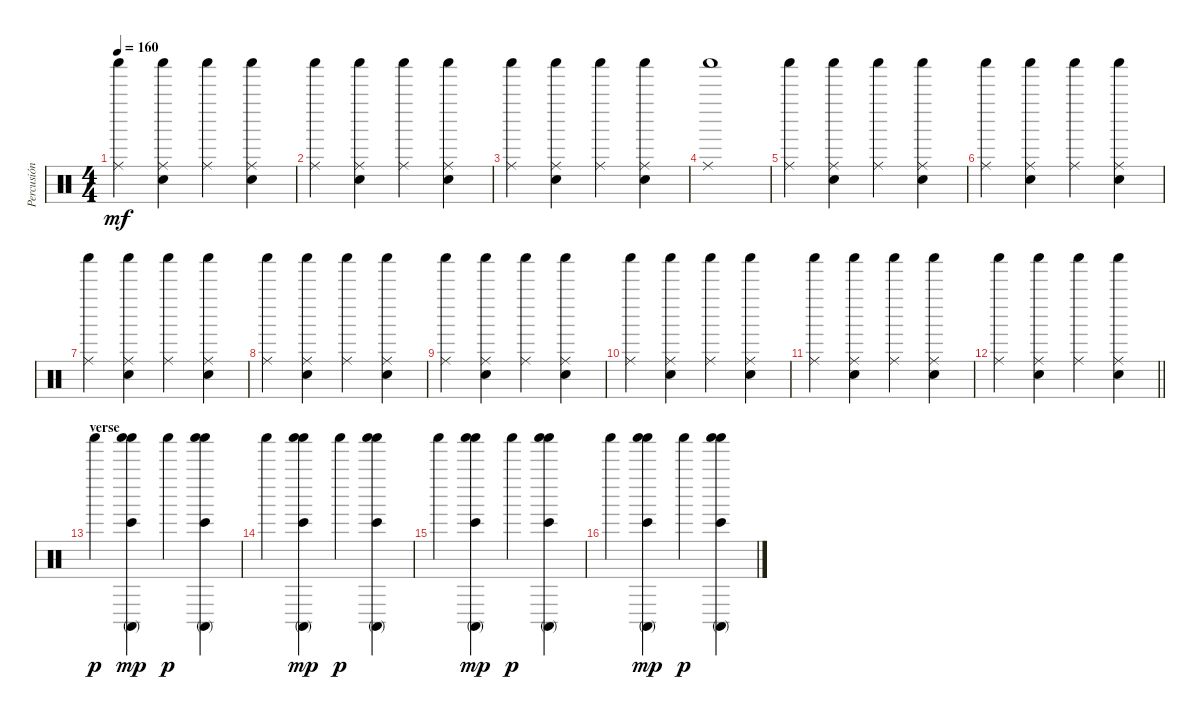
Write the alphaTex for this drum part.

\track ("Percusión" "Percusión") {instrument percussion}
\staff {score}
\articulation defaults
\ts (4 4)
\tempo 160
\clef neutral
\ks c
("Shaker (hit)" "Ride (middle)").4{dy mf} ("Shaker (hit)" "Snare (hit) 2" "Ride (middle)").4 ("Shaker (hit)" "Ride (middle)").4 ("Shaker (hit)" "Snare (hit) 2" "Ride (middle)").4 |
("Shaker (hit)" "Ride (middle)").4 ("Shaker (hit)" "Snare (hit) 2" "Ride (middle)").4 ("Shaker (hit)" "Ride (middle)").4 ("Shaker (hit)" "Snare (hit) 2" "Ride (middle)").4 |
("Shaker (hit)" "Ride (middle)").4 ("Shaker (hit)" "Snare (hit) 2" "Ride (middle)").4 ("Shaker (hit)" "Ride (middle)").4 ("Shaker (hit)" "Snare (hit) 2" "Ride (middle)").4 |
("Shaker (hit)" "Ride (middle)").1 |
("Shaker (hit)" "Ride (middle)").4 ("Shaker (hit)" "Snare (hit) 2" "Ride (middle)").4 ("Shaker (hit)" "Ride (middle)").4 ("Shaker (hit)" "Snare (hit) 2" "Ride (middle)").4 |
("Shaker (hit)" "Ride (middle)").4 ("Shaker (hit)" "Snare (hit) 2" "Ride (middle)").4 ("Shaker (hit)" "Ride (middle)").4 ("Shaker (hit)" "Snare (hit) 2" "Ride (middle)").4 |
("Shaker (hit)" "Ride (middle)").4 ("Shaker (hit)" "Snare (hit) 2" "Ride (middle)").4 ("Shaker (hit)" "Ride (middle)").4 ("Shaker (hit)" "Snare (hit) 2" "Ride (middle)").4 |
("Shaker (hit)" "Ride (middle)").4 ("Shaker (hit)" "Snare (hit) 2" "Ride (middle)").4 ("Shaker (hit)" "Ride (middle)").4 ("Shaker (hit)" "Snare (hit) 2" "Ride (middle)").4 |
("Shaker (hit)" "Ride (middle)").4 ("Shaker (hit)" "Snare (hit) 2" "Ride (middle)").4 ("Shaker (hit)" "Ride (middle)").4 ("Shaker (hit)" "Snare (hit) 2" "Ride (middle)").4 |
("Shaker (hit)" "Ride (middle)").4 ("Shaker (hit)" "Snare (hit) 2" "Ride (middle)").4 ("Shaker (hit)" "Ride (middle)").4 ("Shaker (hit)" "Snare (hit) 2" "Ride (middle)").4 |
("Shaker (hit)" "Ride (middle)").4 ("Shaker (hit)" "Snare (hit) 2" "Ride (middle)").4 ("Shaker (hit)" "Ride (middle)").4 ("Shaker (hit)" "Snare (hit) 2" "Ride (middle)").4 |
\barLineRight lightlight
("Shaker (hit)" "Ride (middle)").4 ("Shaker (hit)" "Snare (hit) 2" "Ride (middle)").4 ("Shaker (hit)" "Ride (middle)").4 ("Shaker (hit)" "Snare (hit) 2" "Ride (middle)").4 |
\section ("" "verse")
"Shaker (hit)".4{dy p} ("Shaker (hit)" "Conga high (mute)" "Bongo High (hit)" "Shaker (hit)").4{dy mp} "Shaker (hit)".4{dy p} ("Shaker (hit)" "Conga high (mute)" "Bongo High (hit)" "Shaker (hit)").4 |
"Shaker (hit)".4 ("Shaker (hit)" "Conga high (mute)" "Bongo High (hit)" "Shaker (hit)").4{dy mp} "Shaker (hit)".4{dy p} ("Shaker (hit)" "Conga high (mute)" "Bongo High (hit)" "Shaker (hit)").4 |
"Shaker (hit)".4 ("Shaker (hit)" "Conga high (mute)" "Bongo High (hit)" "Shaker (hit)").4{dy mp} "Shaker (hit)".4{dy p} ("Shaker (hit)" "Conga high (mute)" "Bongo High (hit)" "Shaker (hit)").4 |
"Shaker (hit)".4 ("Shaker (hit)" "Conga high (mute)" "Bongo High (hit)" "Shaker (hit)").4{dy mp} "Shaker (hit)".4{dy p} ("Shaker (hit)" "Conga high (mute)" "Bongo High (hit)" "Shaker (hit)").4
